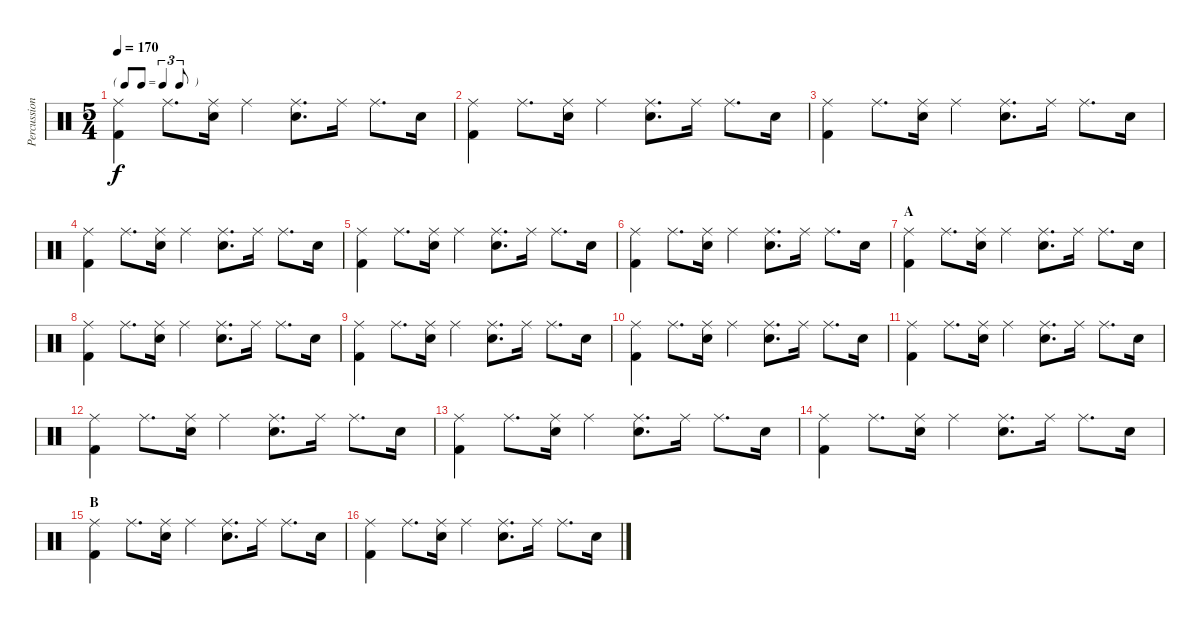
\track ("Percussion" "Percussion") {instrument percussion}
\staff {score}
\articulation defaults
\ts (5 4)
\tf triplet8th
\tempo 170
\clef neutral
\ks c
("Ride (middle)" "Kick (hit) 2").4{dy f} "Ride (middle)".8{d} ("Ride (middle)" "Electric Snare (hit)").16 "Ride (middle)".4 ("Ride (middle)" "Electric Snare (hit)").8{d} "Ride (middle)".16 "Ride (middle)".8{d} "Electric Snare (hit)".16 |
("Ride (middle)" "Kick (hit) 2").4 "Ride (middle)".8{d} ("Ride (middle)" "Electric Snare (hit)").16 "Ride (middle)".4 ("Ride (middle)" "Electric Snare (hit)").8{d} "Ride (middle)".16 "Ride (middle)".8{d} "Electric Snare (hit)".16 |
("Ride (middle)" "Kick (hit) 2").4 "Ride (middle)".8{d} ("Ride (middle)" "Electric Snare (hit)").16 "Ride (middle)".4 ("Ride (middle)" "Electric Snare (hit)").8{d} "Ride (middle)".16 "Ride (middle)".8{d} "Electric Snare (hit)".16 |
("Ride (middle)" "Kick (hit) 2").4 "Ride (middle)".8{d} ("Ride (middle)" "Electric Snare (hit)").16 "Ride (middle)".4 ("Ride (middle)" "Electric Snare (hit)").8{d} "Ride (middle)".16 "Ride (middle)".8{d} "Electric Snare (hit)".16 |
("Ride (middle)" "Kick (hit) 2").4 "Ride (middle)".8{d} ("Ride (middle)" "Electric Snare (hit)").16 "Ride (middle)".4 ("Ride (middle)" "Electric Snare (hit)").8{d} "Ride (middle)".16 "Ride (middle)".8{d} "Electric Snare (hit)".16 |
("Ride (middle)" "Kick (hit) 2").4 "Ride (middle)".8{d} ("Ride (middle)" "Electric Snare (hit)").16 "Ride (middle)".4 ("Ride (middle)" "Electric Snare (hit)").8{d} "Ride (middle)".16 "Ride (middle)".8{d} "Electric Snare (hit)".16 |
\section ("" "A")
("Ride (middle)" "Kick (hit) 2").4 "Ride (middle)".8{d} ("Ride (middle)" "Electric Snare (hit)").16 "Ride (middle)".4 ("Ride (middle)" "Electric Snare (hit)").8{d} "Ride (middle)".16 "Ride (middle)".8{d} "Electric Snare (hit)".16 |
("Ride (middle)" "Kick (hit) 2").4 "Ride (middle)".8{d} ("Ride (middle)" "Electric Snare (hit)").16 "Ride (middle)".4 ("Ride (middle)" "Electric Snare (hit)").8{d} "Ride (middle)".16 "Ride (middle)".8{d} "Electric Snare (hit)".16 |
("Ride (middle)" "Kick (hit) 2").4 "Ride (middle)".8{d} ("Ride (middle)" "Electric Snare (hit)").16 "Ride (middle)".4 ("Ride (middle)" "Electric Snare (hit)").8{d} "Ride (middle)".16 "Ride (middle)".8{d} "Electric Snare (hit)".16 |
("Ride (middle)" "Kick (hit) 2").4 "Ride (middle)".8{d} ("Ride (middle)" "Electric Snare (hit)").16 "Ride (middle)".4 ("Ride (middle)" "Electric Snare (hit)").8{d} "Ride (middle)".16 "Ride (middle)".8{d} "Electric Snare (hit)".16 |
("Ride (middle)" "Kick (hit) 2").4 "Ride (middle)".8{d} ("Ride (middle)" "Electric Snare (hit)").16 "Ride (middle)".4 ("Ride (middle)" "Electric Snare (hit)").8{d} "Ride (middle)".16 "Ride (middle)".8{d} "Electric Snare (hit)".16 |
("Ride (middle)" "Kick (hit) 2").4 "Ride (middle)".8{d} ("Ride (middle)" "Electric Snare (hit)").16 "Ride (middle)".4 ("Ride (middle)" "Electric Snare (hit)").8{d} "Ride (middle)".16 "Ride (middle)".8{d} "Electric Snare (hit)".16 |
("Ride (middle)" "Kick (hit) 2").4 "Ride (middle)".8{d} ("Ride (middle)" "Electric Snare (hit)").16 "Ride (middle)".4 ("Ride (middle)" "Electric Snare (hit)").8{d} "Ride (middle)".16 "Ride (middle)".8{d} "Electric Snare (hit)".16 |
("Ride (middle)" "Kick (hit) 2").4 "Ride (middle)".8{d} ("Ride (middle)" "Electric Snare (hit)").16 "Ride (middle)".4 ("Ride (middle)" "Electric Snare (hit)").8{d} "Ride (middle)".16 "Ride (middle)".8{d} "Electric Snare (hit)".16 |
\section ("" "B")
("Ride (middle)" "Kick (hit) 2").4 "Ride (middle)".8{d} ("Ride (middle)" "Electric Snare (hit)").16 "Ride (middle)".4 ("Ride (middle)" "Electric Snare (hit)").8{d} "Ride (middle)".16 "Ride (middle)".8{d} "Electric Snare (hit)".16 |
("Ride (middle)" "Kick (hit) 2").4 "Ride (middle)".8{d} ("Ride (middle)" "Electric Snare (hit)").16 "Ride (middle)".4 ("Ride (middle)" "Electric Snare (hit)").8{d} "Ride (middle)".16 "Ride (middle)".8{d} "Electric Snare (hit)".16
